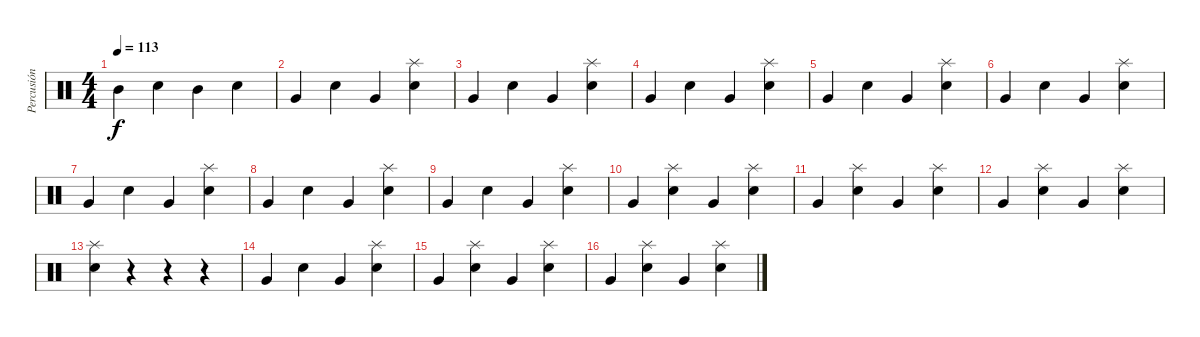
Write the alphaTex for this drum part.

\track ("Percusión" "Percusión") {instrument percussion}
\staff {score}
\articulation defaults
\ts (4 4)
\tempo 113
\clef neutral
\ks c "Mid Tom (hit)".4{dy f} "Snare (hit) 2".4 "Mid Tom (hit)".4 "Snare (hit) 2".4
|
"Very Low Tom (hit)".4 "Snare (hit) 2".4 "Very Low Tom (hit)".4 ("Snare (hit) 2" "Splash (hit)").4 |
"Very Low Tom (hit)".4 "Snare (hit) 2".4 "Very Low Tom (hit)".4 ("Snare (hit) 2" "Splash (hit)").4 |
"Very Low Tom (hit)".4 "Snare (hit) 2".4 "Very Low Tom (hit)".4 ("Snare (hit) 2" "Splash (hit)").4 |
"Very Low Tom (hit)".4 "Snare (hit) 2".4 "Very Low Tom (hit)".4 ("Snare (hit) 2" "Splash (hit)").4 |
"Very Low Tom (hit)".4 "Snare (hit) 2".4 "Very Low Tom (hit)".4 ("Snare (hit) 2" "Splash (hit)").4 |
"Very Low Tom (hit)".4 "Snare (hit) 2".4 "Very Low Tom (hit)".4 ("Snare (hit) 2" "Splash (hit)").4 |
"Very Low Tom (hit)".4 "Snare (hit) 2".4 "Very Low Tom (hit)".4 ("Snare (hit) 2" "Splash (hit)").4 |
"Very Low Tom (hit)".4 "Snare (hit) 2".4 "Very Low Tom (hit)".4 ("Snare (hit) 2" "Splash (hit)").4 |
"Very Low Tom (hit)".4 ("Snare (hit) 2" "Splash (hit)").4 "Very Low Tom (hit)".4 ("Snare (hit) 2" "Splash (hit)").4 |
"Very Low Tom (hit)".4 ("Snare (hit) 2" "Splash (hit)").4 "Very Low Tom (hit)".4 ("Snare (hit) 2" "Splash (hit)").4 |
"Very Low Tom (hit)".4 ("Snare (hit) 2" "Splash (hit)").4 "Very Low Tom (hit)".4 ("Snare (hit) 2" "Splash (hit)").4 |
("Snare (hit) 2" "Splash (hit)").4 r.4 r.4 r.4 |
"Very Low Tom (hit)".4 "Snare (hit) 2".4 "Very Low Tom (hit)".4 ("Snare (hit) 2" "Splash (hit)").4 |
"Very Low Tom (hit)".4 ("Snare (hit) 2" "Splash (hit)").4 "Very Low Tom (hit)".4 ("Snare (hit) 2" "Splash (hit)").4 |
"Very Low Tom (hit)".4 ("Snare (hit) 2" "Splash (hit)").4 "Very Low Tom (hit)".4 ("Snare (hit) 2" "Splash (hit)").4
